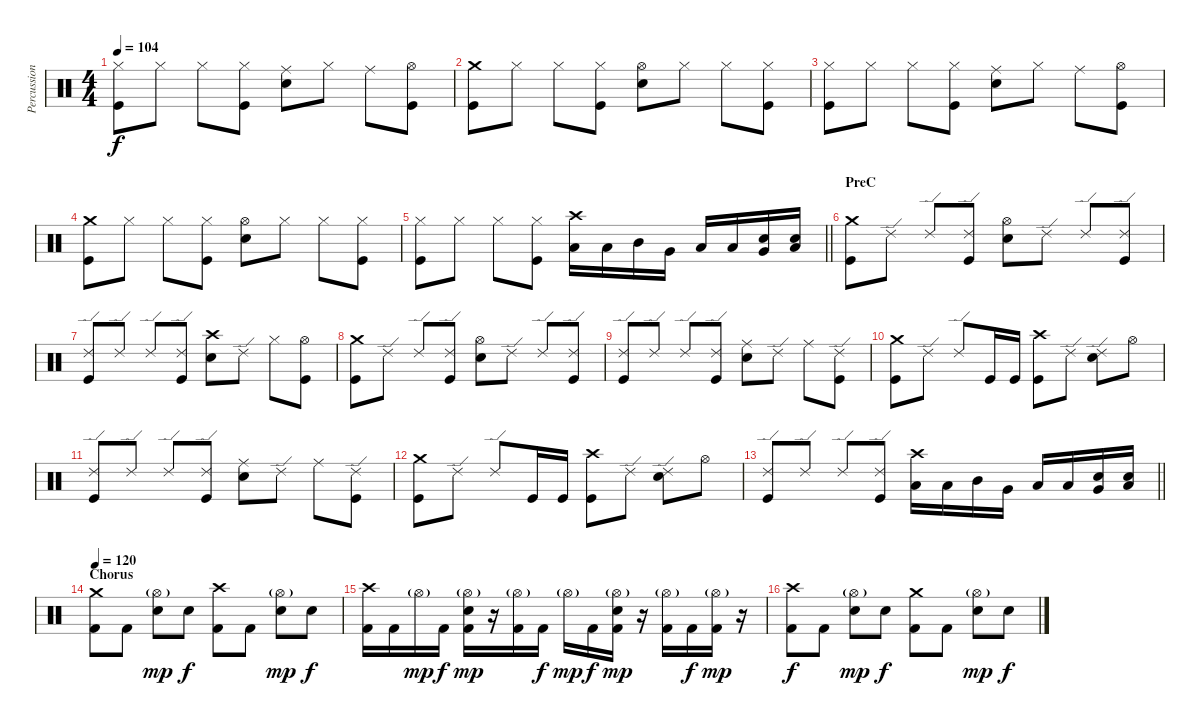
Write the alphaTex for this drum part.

\track ("Percussion" "Percussion") {instrument percussion}
\staff {score}
\articulation defaults
\ts (4 4)
\tempo 104
\clef neutral
\ks c
("Hi-Hat (closed)" "Kick (hit)").8{dy f} "Hi-Hat (closed)".8 "Hi-Hat (closed)".8 ("Hi-Hat (closed)" "Kick (hit)").8 ("Ride (middle)" "Snare (hit) 2").8 "Hi-Hat (closed)".8 "Ride (middle)".8 ("Hi-Hat (open)" "Kick (hit)").8 |
("Crash medium (hit)" "Kick (hit)").8 "Hi-Hat (closed)".8 "Hi-Hat (closed)".8 ("Hi-Hat (closed)" "Kick (hit)").8 ("Hi-Hat (open)" "Snare (hit) 2").8 "Hi-Hat (closed)".8 "Hi-Hat (closed)".8 ("Hi-Hat (closed)" "Kick (hit)").8 |
("Hi-Hat (closed)" "Kick (hit)").8 "Hi-Hat (closed)".8 "Hi-Hat (closed)".8 ("Hi-Hat (closed)" "Kick (hit)").8 ("Ride (middle)" "Snare (hit) 2").8 "Hi-Hat (closed)".8 "Ride (middle)".8 ("Hi-Hat (open)" "Kick (hit)").8 |
("Crash medium (hit)" "Kick (hit)").8 "Hi-Hat (closed)".8 "Hi-Hat (closed)".8 ("Hi-Hat (closed)" "Kick (hit)").8 ("Hi-Hat (open)" "Snare (hit) 2").8 "Hi-Hat (closed)".8 "Hi-Hat (closed)".8 ("Hi-Hat (closed)" "Kick (hit)").8 |
\barLineRight lightlight
("Hi-Hat (closed)" "Kick (hit)").8 "Hi-Hat (closed)".8 "Hi-Hat (closed)".8 ("Hi-Hat (closed)" "Kick (hit)").8 ("Crash high (hit)" "Low Tom (hit)").16 "Low Tom (hit)".16 "Mid Tom (hit)".16 "Very Low Tom (hit)".16 "Low Tom (hit)".16 "Low Tom (hit)".16 ("Snare (hit) 2" "Very Low Tom (hit)").16 ("Snare (hit) 2" "Low Floor Tom (hit)").16 |
\section ("" "PreC")
("Crash medium (hit)" "Kick (hit)").8 "Ride (edge) 2".8 "Ride (edge) 2".8 ("Ride (edge) 2" "Kick (hit)").8 ("Hi-Hat (open)" "Snare (hit) 2").8 "Ride (edge) 2".8 "Ride (edge) 2".8 ("Ride (edge) 2" "Kick (hit)").8 |
("Ride (edge) 2" "Kick (hit)").8 "Ride (edge) 2".8 "Ride (edge) 2".8 ("Ride (edge) 2" "Kick (hit)").8 ("Crash high (hit)" "Snare (hit) 2").8 "Ride (edge) 2".8 "Hi-Hat (closed)".8 ("Hi-Hat (open)" "Kick (hit)").8 |
("Crash medium (hit)" "Kick (hit)").8 "Ride (edge) 2".8 "Ride (edge) 2".8 ("Ride (edge) 2" "Kick (hit)").8 ("Hi-Hat (open)" "Snare (hit) 2").8 "Ride (edge) 2".8 "Ride (edge) 2".8 ("Ride (edge) 2" "Kick (hit)").8 |
("Ride (edge) 2" "Kick (hit)").8 "Ride (edge) 2".8 "Ride (edge) 2".8 ("Ride (edge) 2" "Kick (hit)").8 ("Ride (middle)" "Snare (hit) 2").8 "Ride (edge) 2".8 "Ride (middle)".8 ("Ride (edge) 2" "Kick (hit)").8 |
("Crash medium (hit)" "Kick (hit)").8 "Ride (edge) 2".8 "Ride (edge) 2".8 "Kick (hit)".16 "Kick (hit)".16 ("Crash high (hit)" "Kick (hit)").8 "Ride (edge) 2".8 ("Ride (edge) 2" "Snare (hit) 2").8 "Hi-Hat (open)".8 |
("Ride (edge) 2" "Kick (hit)").8 "Ride (edge) 2".8 "Ride (edge) 2".8 ("Ride (edge) 2" "Kick (hit)").8 ("Ride (middle)" "Snare (hit) 2").8 "Ride (edge) 2".8 "Ride (middle)".8 ("Ride (edge) 2" "Kick (hit)").8 |
("Crash medium (hit)" "Kick (hit)").8 "Ride (edge) 2".8 "Ride (edge) 2".8 "Kick (hit)".16 "Kick (hit)".16 ("Crash high (hit)" "Kick (hit)").8 "Ride (edge) 2".8 ("Ride (edge) 2" "Snare (hit) 2").8 "Hi-Hat (open)".8 |
\barLineRight lightlight
("Ride (edge) 2" "Kick (hit)").8 "Ride (edge) 2".8 "Ride (edge) 2".8 ("Ride (edge) 2" "Kick (hit)").8 ("Crash high (hit)" "Low Tom (hit)").16 "Low Tom (hit)".16 "Mid Tom (hit)".16 "Very Low Tom (hit)".16 "Low Tom (hit)".16 "Low Tom (hit)".16 ("Snare (hit) 2" "Very Low Tom (hit)").16 ("Snare (hit) 2" "Low Floor Tom (hit)").16 |
\section ("" "Chorus")
\tempo 120
("Crash medium (hit)" "Kick (hit) 2").8{volume 16} "Kick (hit) 2".8 ("Hi-Hat (open)"{g} "Snare (hit) 2").8{dy mp} "Snare (hit) 2".8{dy f} ("Crash high (hit)" "Kick (hit) 2").8 "Kick (hit) 2".8 ("Hi-Hat (open)"{g} "Snare (hit) 2").8{dy mp} "Snare (hit) 2".8{dy f} |
("Crash high (hit)" "Kick (hit) 2").16 "Kick (hit) 2".16 "Hi-Hat (open)"{g}.16{dy mp} "Kick (hit) 2".16{dy f} ("Hi-Hat (open)"{g} "Snare (hit) 2" "Kick (hit) 2").16{dy mp} r.16 ("Hi-Hat (open)"{g} "Kick (hit) 2").16 "Kick (hit) 2".16{dy f} "Hi-Hat (open)"{g}.16{dy mp} "Kick (hit) 2".16{dy f} ("Hi-Hat (open)"{g} "Snare (hit) 2" "Kick (hit) 2").16{dy mp} r.16 ("Hi-Hat (open)"{g} "Kick (hit) 2").16 "Kick (hit) 2".16{dy f} ("Hi-Hat (open)"{g} "Kick (hit) 2").16{dy mp} r.16 |
("Crash high (hit)" "Kick (hit) 2").8{dy f} "Kick (hit) 2".8 ("Hi-Hat (open)"{g} "Snare (hit) 2").8{dy mp} "Snare (hit) 2".8{dy f} ("Crash medium (hit)" "Kick (hit) 2").8 "Kick (hit) 2".8 ("Hi-Hat (open)"{g} "Snare (hit) 2").8{dy mp} "Snare (hit) 2".8{dy f}
